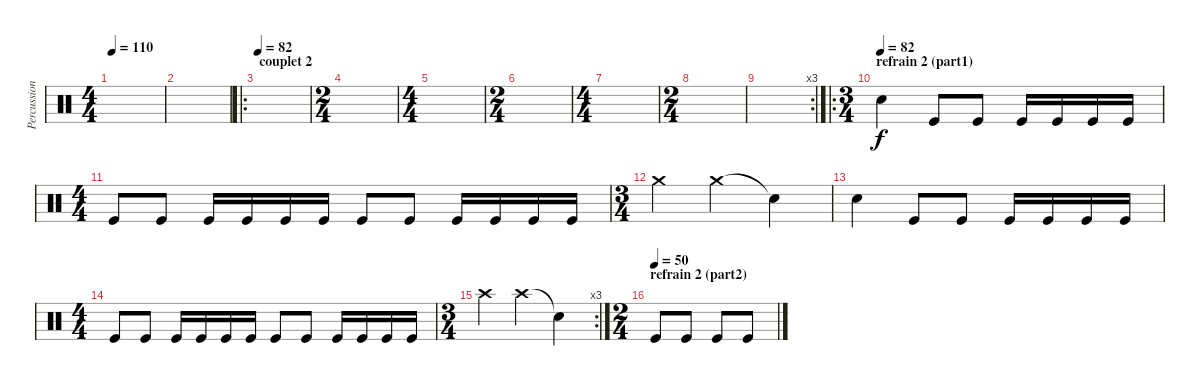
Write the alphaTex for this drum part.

\track ("Percussions" "Percussion") {instrument percussion}
\staff {score}
\articulation defaults
\ts (4 4)
\tempo 110
\clef neutral
\ks c
|
|
\ro
\section ("" "couplet 2")
\tempo 82
|
\ts (2 4)
|
\ts (4 4)
|
\ts (2 4)
|
\ts (4 4)
|
\ts (2 4)
|
\rc 3
|
\ro
\ts (3 4)
\section ("" "refrain 2 (part1)")
\tempo (82)
"Snare (hit) 2".4 "Kick (hit)".8 "Kick (hit)".8 "Kick (hit)".16 "Kick (hit)".16 "Kick (hit)".16 "Kick (hit)".16 |
\ts (4 4)
"Kick (hit)".8 "Kick (hit)".8 "Kick (hit)".16 "Kick (hit)".16 "Kick (hit)".16 "Kick (hit)".16 "Kick (hit)".8 "Kick (hit)".8 "Kick (hit)".16 "Kick (hit)".16 "Kick (hit)".16 "Kick (hit)".16 |
\ts (3 4)
"Crash medium (hit)".4 "Crash medium (hit)".4 "Snare (hit)"{t}.4 |
"Snare (hit) 2".4 "Kick (hit)".8 "Kick (hit)".8 "Kick (hit)".16 "Kick (hit)".16 "Kick (hit)".16 "Kick (hit)".16 |
\ts (4 4)
"Kick (hit)".8 "Kick (hit)".8 "Kick (hit)".16 "Kick (hit)".16 "Kick (hit)".16 "Kick (hit)".16 "Kick (hit)".8 "Kick (hit)".8 "Kick (hit)".16 "Kick (hit)".16 "Kick (hit)".16 "Kick (hit)".16 |
\rc 3
\ts (3 4)
"Crash high (hit)".4 "Crash high (hit)".4 "Snare (hit)"{t}.4 |
\ts (2 4)
\section ("" "refrain 2 (part2)")
\tempo (50)
"Kick (hit)".8 "Kick (hit)".8 "Kick (hit)".8 "Kick (hit)".8
